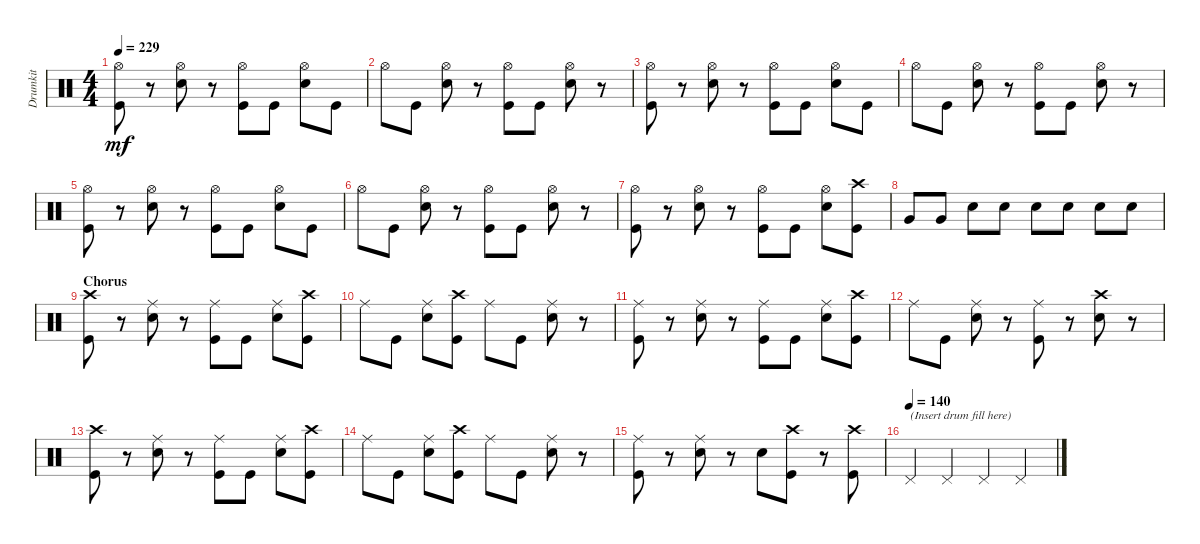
\track ("Drumkit" "Drumkit") {instrument percussion}
\staff {score}
\articulation defaults
\ts (4 4)
\tempo 229
\clef neutral
\ks c
("Kick (hit)" "Hi-Hat (open)").8{dy mf} r.8 ("Snare (hit) 2" "Hi-Hat (open)").8 r.8 ("Kick (hit)" "Hi-Hat (open)").8 "Kick (hit)".8 ("Snare (hit) 2" "Hi-Hat (open)").8 "Kick (hit)".8 |
"Hi-Hat (open)".8 "Kick (hit)".8 ("Snare (hit) 2" "Hi-Hat (open)").8 r.8 ("Kick (hit)" "Hi-Hat (open)").8 "Kick (hit)".8 ("Snare (hit) 2" "Hi-Hat (open)").8 r.8 |
("Kick (hit)" "Hi-Hat (open)").8 r.8 ("Snare (hit) 2" "Hi-Hat (open)").8 r.8 ("Kick (hit)" "Hi-Hat (open)").8 "Kick (hit)".8 ("Snare (hit) 2" "Hi-Hat (open)").8 "Kick (hit)".8 |
"Hi-Hat (open)".8 "Kick (hit)".8 ("Snare (hit) 2" "Hi-Hat (open)").8 r.8 ("Kick (hit)" "Hi-Hat (open)").8 "Kick (hit)".8 ("Snare (hit) 2" "Hi-Hat (open)").8 r.8 |
("Kick (hit)" "Hi-Hat (open)").8 r.8 ("Snare (hit) 2" "Hi-Hat (open)").8 r.8 ("Kick (hit)" "Hi-Hat (open)").8 "Kick (hit)".8 ("Snare (hit) 2" "Hi-Hat (open)").8 "Kick (hit)".8 |
"Hi-Hat (open)".8 "Kick (hit)".8 ("Snare (hit) 2" "Hi-Hat (open)").8 r.8 ("Kick (hit)" "Hi-Hat (open)").8 "Kick (hit)".8 ("Snare (hit) 2" "Hi-Hat (open)").8 r.8 |
("Kick (hit)" "Hi-Hat (open)").8 r.8 ("Snare (hit) 2" "Hi-Hat (open)").8 r.8 ("Kick (hit)" "Hi-Hat (open)").8 "Kick (hit)".8 ("Snare (hit) 2" "Hi-Hat (open)").8 ("Kick (hit)" "Crash high (hit)").8 |
"Very Low Tom (hit)".8 "Very Low Tom (hit)".8 "Snare (hit) 2".8 "Snare (hit) 2".8 "Snare (hit) 2".8 "Snare (hit) 2".8 "Snare (hit) 2".8 "Snare (hit) 2".8 |
\section ("" "Chorus")
("Kick (hit)" "Crash high (hit)").8 r.8 ("Snare (hit) 2" "Ride (middle)").8 r.8 ("Kick (hit)" "Ride (middle)").8 "Kick (hit)".8 ("Snare (hit) 2" "Ride (middle)").8 ("Kick (hit)" "Crash high (hit)").8 |
"Ride (middle)".8 "Kick (hit)".8 ("Snare (hit) 2" "Ride (middle)").8 ("Kick (hit)" "Crash high (hit)").8 "Ride (middle)".8 "Kick (hit)".8 ("Snare (hit) 2" "Ride (middle)").8 r.8 |
("Kick (hit)" "Ride (middle)").8 r.8 ("Snare (hit) 2" "Ride (middle)").8 r.8 ("Kick (hit)" "Ride (middle)").8 "Kick (hit)".8 ("Snare (hit) 2" "Ride (middle)").8 ("Kick (hit)" "Crash high (hit)").8 |
"Ride (middle)".8 "Kick (hit)".8 ("Snare (hit) 2" "Ride (middle)").8 r.8 ("Kick (hit)" "Ride (middle)").8 r.8 ("Snare (hit) 2" "Crash high (hit)").8 r.8 |
("Kick (hit)" "Crash high (hit)").8 r.8 ("Snare (hit) 2" "Ride (middle)").8 r.8 ("Kick (hit)" "Ride (middle)").8 "Kick (hit)".8 ("Snare (hit) 2" "Ride (middle)").8 ("Kick (hit)" "Crash high (hit)").8 |
"Ride (middle)".8 "Kick (hit)".8 ("Snare (hit) 2" "Ride (middle)").8 ("Kick (hit)" "Crash high (hit)").8 "Ride (middle)".8 "Kick (hit)".8 ("Snare (hit) 2" "Ride (middle)").8 r.8 |
("Kick (hit)" "Ride (middle)").8 r.8 ("Snare (hit) 2" "Ride (middle)").8 r.8 "Snare (hit) 2".8 ("Kick (hit)" "Crash high (hit)").8 r.8 ("Kick (hit)" "Crash high (hit)").8 |
\tempo (140)
"Pedal Hi-Hat (hit)".4{txt "(Insert drum fill here)"} "Pedal Hi-Hat (hit)".4 "Pedal Hi-Hat (hit)".4 "Pedal Hi-Hat (hit)".4
